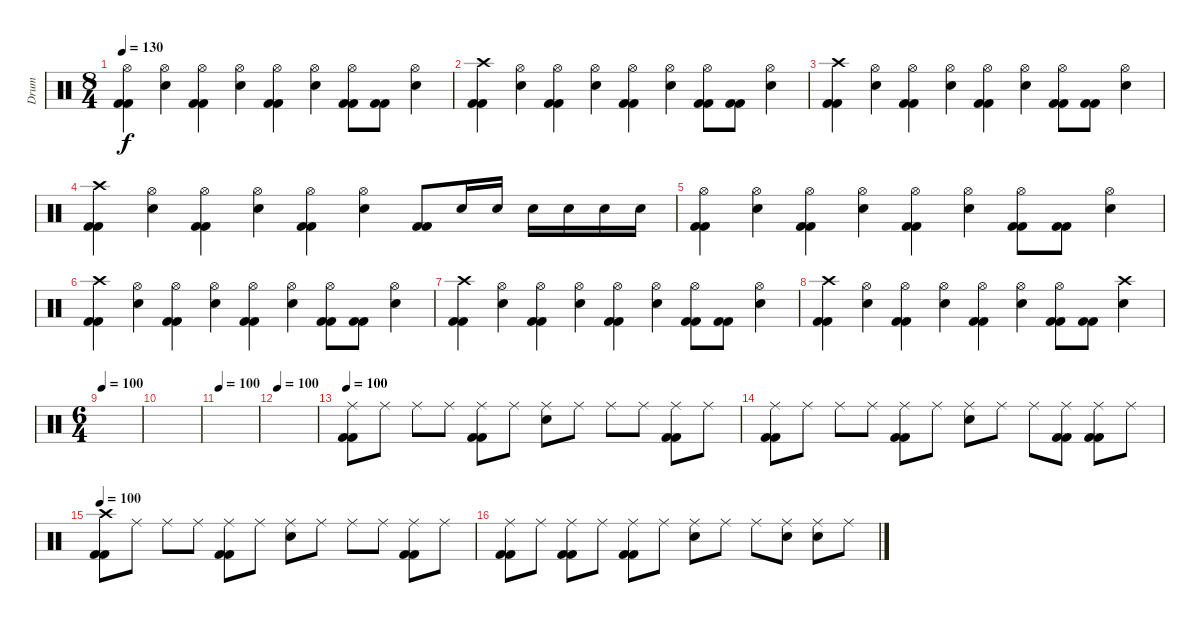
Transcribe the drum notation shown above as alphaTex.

\track ("Drum" "Drum") {instrument percussion}
\staff {score}
\articulation defaults
\ts (8 4)
\tempo 130
\clef neutral
\ks c
("Hi-Hat (open)" "Kick (hit) 2" "Kick (hit) 2").4{dy f} ("Hi-Hat (open)" "Electric Snare (hit)").4 ("Hi-Hat (open)" "Kick (hit) 2" "Kick (hit) 2").4 ("Hi-Hat (open)" "Electric Snare (hit)").4 ("Hi-Hat (open)" "Kick (hit) 2" "Kick (hit) 2").4 ("Hi-Hat (open)" "Electric Snare (hit)").4 ("Hi-Hat (open)" "Kick (hit) 2" "Kick (hit) 2").8 ("Kick (hit) 2" "Kick (hit) 2").8 ("Hi-Hat (open)" "Electric Snare (hit)").4 |
("Crash high (hit)" "Kick (hit) 2" "Kick (hit) 2").4 ("Hi-Hat (open)" "Electric Snare (hit)").4 ("Hi-Hat (open)" "Kick (hit) 2" "Kick (hit) 2").4 ("Hi-Hat (open)" "Electric Snare (hit)").4 ("Hi-Hat (open)" "Kick (hit) 2" "Kick (hit) 2").4 ("Hi-Hat (open)" "Electric Snare (hit)").4 ("Hi-Hat (open)" "Kick (hit) 2" "Kick (hit) 2").8 ("Kick (hit) 2" "Kick (hit) 2").8 ("Hi-Hat (open)" "Electric Snare (hit)").4 |
("Crash high (hit)" "Kick (hit) 2" "Kick (hit) 2").4 ("Hi-Hat (open)" "Electric Snare (hit)").4 ("Hi-Hat (open)" "Kick (hit) 2" "Kick (hit) 2").4 ("Hi-Hat (open)" "Electric Snare (hit)").4 ("Hi-Hat (open)" "Kick (hit) 2" "Kick (hit) 2").4 ("Hi-Hat (open)" "Electric Snare (hit)").4 ("Hi-Hat (open)" "Kick (hit) 2" "Kick (hit) 2").8 ("Kick (hit) 2" "Kick (hit) 2").8 ("Hi-Hat (open)" "Electric Snare (hit)").4 |
("Crash high (hit)" "Kick (hit) 2" "Kick (hit) 2").4 ("Hi-Hat (open)" "Electric Snare (hit)").4 ("Hi-Hat (open)" "Kick (hit) 2" "Kick (hit) 2").4 ("Hi-Hat (open)" "Electric Snare (hit)").4 ("Hi-Hat (open)" "Kick (hit) 2" "Kick (hit) 2").4 ("Hi-Hat (open)" "Electric Snare (hit)").4 ("Kick (hit) 2" "Kick (hit) 2").8 "Electric Snare (hit)".16 "Electric Snare (hit)".16 "Electric Snare (hit)".16 "Electric Snare (hit)".16 "Electric Snare (hit)".16 "Electric Snare (hit)".16 |
("Hi-Hat (open)" "Kick (hit) 2" "Kick (hit) 2").4 ("Hi-Hat (open)" "Electric Snare (hit)").4 ("Hi-Hat (open)" "Kick (hit) 2" "Kick (hit) 2").4 ("Hi-Hat (open)" "Electric Snare (hit)").4 ("Hi-Hat (open)" "Kick (hit) 2" "Kick (hit) 2").4 ("Hi-Hat (open)" "Electric Snare (hit)").4 ("Hi-Hat (open)" "Kick (hit) 2" "Kick (hit) 2").8 ("Kick (hit) 2" "Kick (hit) 2").8 ("Hi-Hat (open)" "Electric Snare (hit)").4 |
("Crash high (hit)" "Kick (hit) 2" "Kick (hit) 2").4 ("Hi-Hat (open)" "Electric Snare (hit)").4 ("Hi-Hat (open)" "Kick (hit) 2" "Kick (hit) 2").4 ("Hi-Hat (open)" "Electric Snare (hit)").4 ("Hi-Hat (open)" "Kick (hit) 2" "Kick (hit) 2").4 ("Hi-Hat (open)" "Electric Snare (hit)").4 ("Hi-Hat (open)" "Kick (hit) 2" "Kick (hit) 2").8 ("Kick (hit) 2" "Kick (hit) 2").8 ("Hi-Hat (open)" "Electric Snare (hit)").4 |
("Crash high (hit)" "Kick (hit) 2" "Kick (hit) 2").4 ("Hi-Hat (open)" "Electric Snare (hit)").4 ("Hi-Hat (open)" "Kick (hit) 2" "Kick (hit) 2").4 ("Hi-Hat (open)" "Electric Snare (hit)").4 ("Hi-Hat (open)" "Kick (hit) 2" "Kick (hit) 2").4 ("Hi-Hat (open)" "Electric Snare (hit)").4 ("Hi-Hat (open)" "Kick (hit) 2" "Kick (hit) 2").8 ("Kick (hit) 2" "Kick (hit) 2").8 ("Hi-Hat (open)" "Electric Snare (hit)").4 |
("Crash high (hit)" "Kick (hit) 2" "Kick (hit) 2").4 ("Hi-Hat (open)" "Electric Snare (hit)").4 ("Hi-Hat (open)" "Kick (hit) 2" "Kick (hit) 2").4 ("Hi-Hat (open)" "Electric Snare (hit)").4 ("Hi-Hat (open)" "Kick (hit) 2" "Kick (hit) 2").4 ("Hi-Hat (open)" "Electric Snare (hit)").4 ("Hi-Hat (open)" "Kick (hit) 2" "Kick (hit) 2").8 ("Kick (hit) 2" "Kick (hit) 2").8 ("Crash high (hit)" "Electric Snare (hit)").4 |
\ts (6 4)
\tempo 100
|
|
\tempo 100
|
\tempo 100
|
\tempo 100
("Ride (middle)" "Kick (hit) 2" "Kick (hit) 2").8 "Ride (middle)".8 "Ride (middle)".8 "Ride (middle)".8 ("Ride (middle)" "Kick (hit) 2" "Kick (hit) 2").8 "Ride (middle)".8 ("Ride (middle)" "Electric Snare (hit)").8 "Ride (middle)".8 "Ride (middle)".8 "Ride (middle)".8 ("Ride (middle)" "Kick (hit) 2" "Kick (hit) 2").8 "Ride (middle)".8 |
("Ride (middle)" "Kick (hit) 2" "Kick (hit) 2").8 "Ride (middle)".8 "Ride (middle)".8 "Ride (middle)".8 ("Ride (middle)" "Kick (hit) 2" "Kick (hit) 2").8 "Ride (middle)".8 ("Ride (middle)" "Electric Snare (hit)").8 "Ride (middle)".8 "Ride (middle)".8 ("Ride (middle)" "Kick (hit) 2" "Kick (hit) 2").8 ("Ride (middle)" "Kick (hit) 2" "Kick (hit) 2").8 "Ride (middle)".8 |
\tempo 100
("Crash high (hit)" "Kick (hit) 2" "Kick (hit) 2").8 "Ride (middle)".8 "Ride (middle)".8 "Ride (middle)".8 ("Ride (middle)" "Kick (hit) 2" "Kick (hit) 2").8 "Ride (middle)".8 ("Ride (middle)" "Electric Snare (hit)").8 "Ride (middle)".8 "Ride (middle)".8 "Ride (middle)".8 ("Ride (middle)" "Kick (hit) 2" "Kick (hit) 2").8 "Ride (middle)".8 |
("Ride (middle)" "Kick (hit) 2" "Kick (hit) 2").8 "Ride (middle)".8 ("Ride (middle)" "Kick (hit) 2" "Kick (hit) 2").8 "Ride (middle)".8 ("Ride (middle)" "Kick (hit) 2" "Kick (hit) 2").8 "Ride (middle)".8 ("Ride (middle)" "Electric Snare (hit)").8 "Ride (middle)".8 "Ride (middle)".8 ("Ride (middle)" "Electric Snare (hit)").8 ("Ride (middle)" "Electric Snare (hit)").8 "Ride (middle)".8
